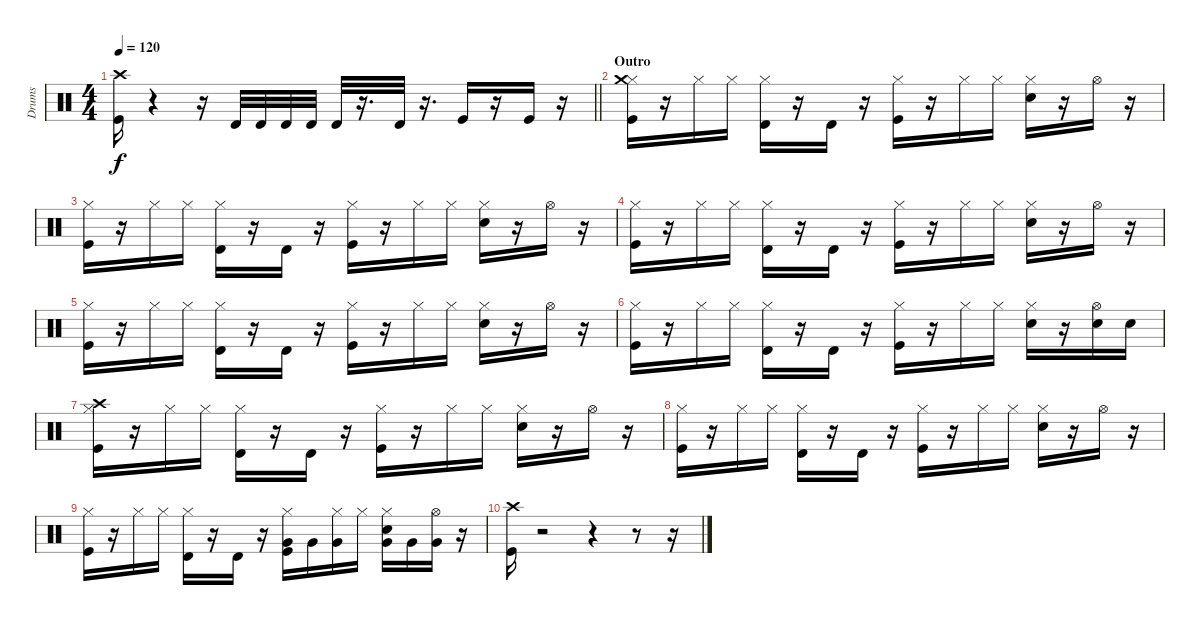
\track ("Drums" "Drums") {instrument percussion}
\staff {score}
\articulation defaults
\ts (4 4)
\tempo 120
\clef neutral
\barLineRight lightlight
\ks c
("Crash high (hit)" "Kick (hit)").16{dy f} r.4 r.16 "Timbale high (hit)".32 "Timbale high (hit)".32 "Timbale high (hit)".32 "Timbale high (hit)".32 "Timbale high (hit)".32 r.16{d} "Timbale high (hit)".32 r.16{d} "Kick (hit)".16 r.16 "Kick (hit)".16 r.16 |
\section ("" "Outro")
("Hi-Hat (closed)" "Kick (hit)" "Crash medium (hit)").16 r.16 "Hi-Hat (closed)".16 "Hi-Hat (closed)".16 ("Hi-Hat (closed)" "Timbale high (hit)").16 r.16 "Timbale high (hit)".16 r.16 ("Hi-Hat (closed)" "Kick (hit)").16 r.16 "Hi-Hat (closed)".16 "Hi-Hat (closed)".16 ("Hi-Hat (closed)" "Snare (hit) 2").16 r.16 "Hi-Hat (open)".16 r.16 |
("Hi-Hat (closed)" "Kick (hit)").16 r.16 "Hi-Hat (closed)".16 "Hi-Hat (closed)".16 ("Hi-Hat (closed)" "Timbale high (hit)").16 r.16 "Timbale high (hit)".16 r.16 ("Hi-Hat (closed)" "Kick (hit)").16 r.16 "Hi-Hat (closed)".16 "Hi-Hat (closed)".16 ("Hi-Hat (closed)" "Snare (hit) 2").16 r.16 "Hi-Hat (open)".16 r.16 |
("Hi-Hat (closed)" "Kick (hit)").16 r.16 "Hi-Hat (closed)".16 "Hi-Hat (closed)".16 ("Hi-Hat (closed)" "Timbale high (hit)").16 r.16 "Timbale high (hit)".16 r.16 ("Hi-Hat (closed)" "Kick (hit)").16 r.16 "Hi-Hat (closed)".16 "Hi-Hat (closed)".16 ("Hi-Hat (closed)" "Snare (hit) 2").16 r.16 "Hi-Hat (open)".16 r.16 |
("Hi-Hat (closed)" "Kick (hit)").16 r.16 "Hi-Hat (closed)".16 "Hi-Hat (closed)".16 ("Hi-Hat (closed)" "Timbale high (hit)").16 r.16 "Timbale high (hit)".16 r.16 ("Hi-Hat (closed)" "Kick (hit)").16 r.16 "Hi-Hat (closed)".16 "Hi-Hat (closed)".16 ("Hi-Hat (closed)" "Snare (hit) 2").16 r.16 "Hi-Hat (open)".16 r.16 |
("Hi-Hat (closed)" "Kick (hit)").16 r.16 "Hi-Hat (closed)".16 "Hi-Hat (closed)".16 ("Hi-Hat (closed)" "Timbale high (hit)").16 r.16 "Timbale high (hit)".16 r.16 ("Hi-Hat (closed)" "Kick (hit)").16 r.16 "Hi-Hat (closed)".16 "Hi-Hat (closed)".16 ("Hi-Hat (closed)" "Snare (hit) 2").16 r.16 ("Snare (hit) 2" "Hi-Hat (open)").16 "Snare (hit) 2".16 |
("Crash high (hit)" "Hi-Hat (closed)" "Kick (hit)").16 r.16 "Hi-Hat (closed)".16 "Hi-Hat (closed)".16 ("Hi-Hat (closed)" "Timbale high (hit)").16 r.16 "Timbale high (hit)".16 r.16 ("Hi-Hat (closed)" "Kick (hit)").16 r.16 "Hi-Hat (closed)".16 "Hi-Hat (closed)".16 ("Hi-Hat (closed)" "Snare (hit) 2").16 r.16 "Hi-Hat (open)".16 r.16 |
("Hi-Hat (closed)" "Kick (hit)").16 r.16 "Hi-Hat (closed)".16 "Hi-Hat (closed)".16 ("Hi-Hat (closed)" "Timbale high (hit)").16 r.16 "Timbale high (hit)".16 r.16 ("Hi-Hat (closed)" "Kick (hit)").16 r.16 "Hi-Hat (closed)".16 "Hi-Hat (closed)".16 ("Hi-Hat (closed)" "Snare (hit) 2").16 r.16 "Hi-Hat (open)".16 r.16 |
("Hi-Hat (closed)" "Kick (hit)").16 r.16 "Hi-Hat (closed)".16 "Hi-Hat (closed)".16 ("Hi-Hat (closed)" "Timbale high (hit)").16 r.16 "Timbale high (hit)".16 r.16 ("Very Low Tom (hit)" "Hi-Hat (closed)" "Kick (hit)").16 "Very Low Tom (hit)".16 ("Very Low Tom (hit)" "Hi-Hat (closed)").16 "Hi-Hat (closed)".16 ("Very Low Tom (hit)" "Hi-Hat (closed)" "Snare (hit) 2").16 "Very Low Tom (hit)".16 ("Very Low Tom (hit)" "Hi-Hat (open)").16 r.16 |
("Crash high (hit)" "Kick (hit)").16 r.2 r.4 r.8 r.16
